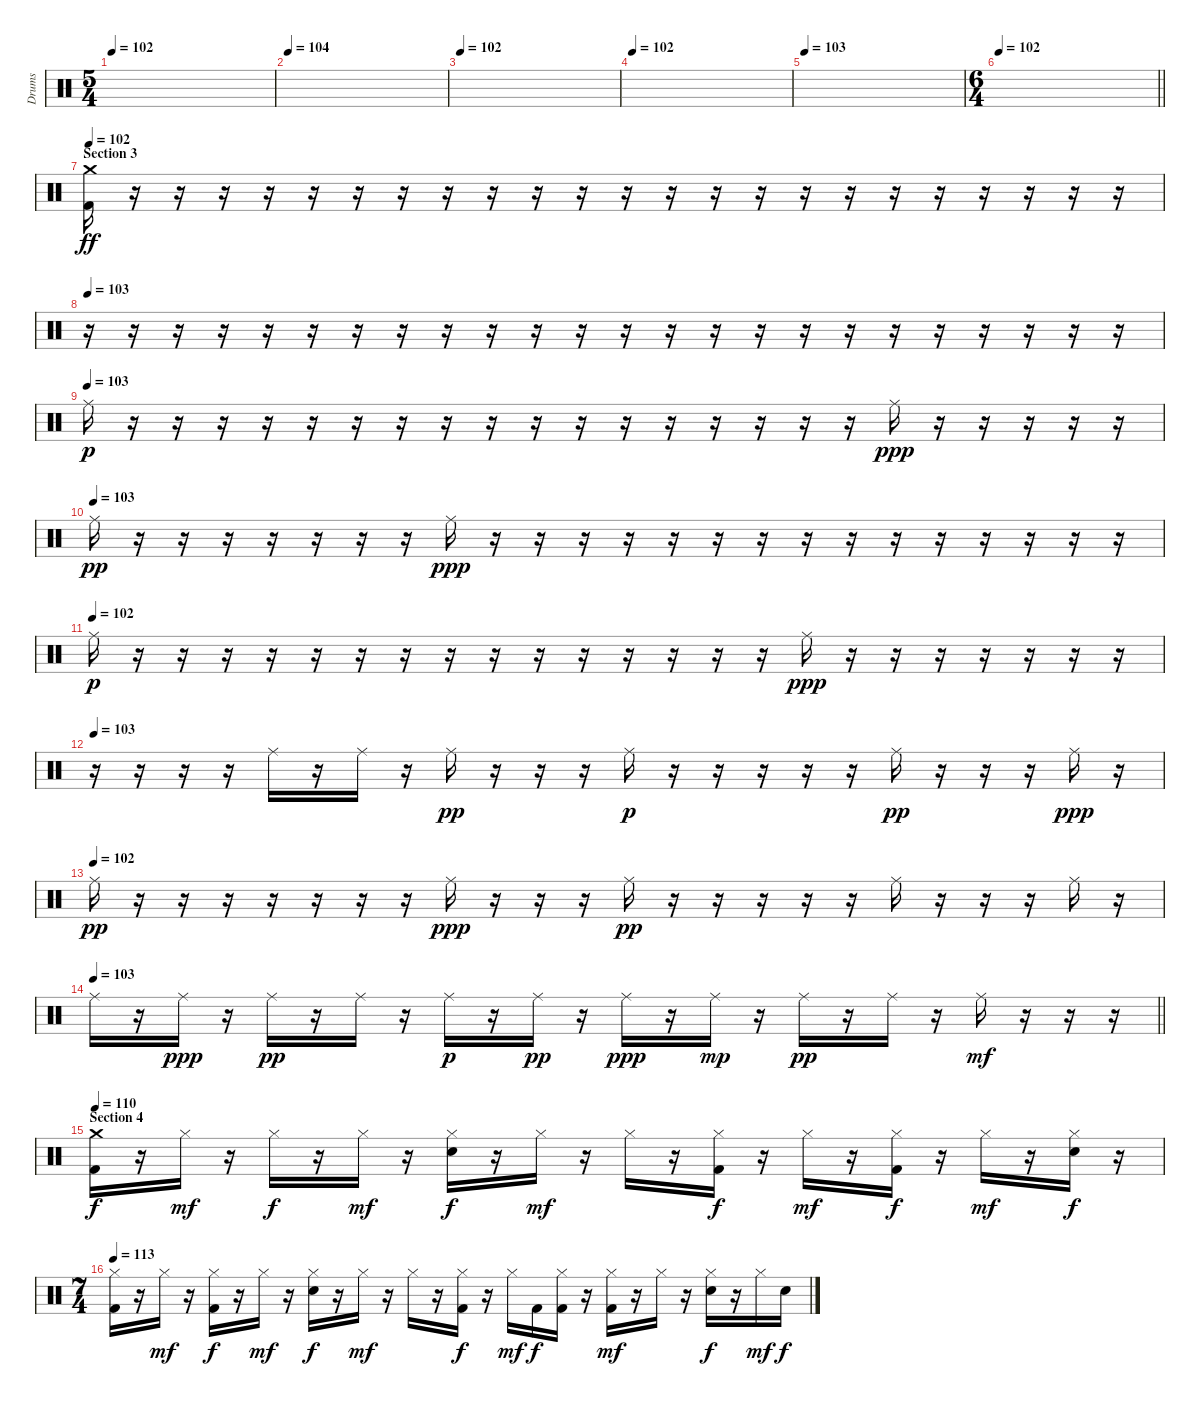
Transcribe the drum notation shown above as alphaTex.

\track ("Drums" "Drums") {instrument percussion}
\staff {score}
\articulation defaults
\ts (5 4)
\tempo 102
\clef neutral
\ks c
|
\tempo 104
|
\tempo 102
|
\tempo 102
|
\tempo 103
|
\ts (6 4)
\tempo 102
\barLineRight lightlight
|
\section ("" "Section 3")
\tempo 102
("Crash medium (hit)" "Kick (hit) 2").16{dy ff} r.16 r.16 r.16 r.16 r.16 r.16 r.16 r.16 r.16 r.16 r.16 r.16 r.16 r.16 r.16 r.16 r.16 r.16 r.16 r.16 r.16 r.16 r.16 |
\tempo 103
r.16 r.16 r.16 r.16 r.16 r.16 r.16 r.16 r.16 r.16 r.16 r.16 r.16 r.16 r.16 r.16 r.16 r.16 r.16 r.16 r.16 r.16 r.16 r.16 |
\tempo (103)
"Ride (middle)".16{dy p} r.16 r.16 r.16 r.16 r.16 r.16 r.16 r.16 r.16 r.16 r.16 r.16 r.16 r.16 r.16 r.16 r.16 "Ride (middle)".16{dy ppp} r.16 r.16 r.16 r.16 r.16 |
\tempo (103)
"Ride (middle)".16{dy pp} r.16 r.16 r.16 r.16 r.16 r.16 r.16 "Ride (middle)".16{dy ppp} r.16 r.16 r.16 r.16 r.16 r.16 r.16 r.16 r.16 r.16 r.16 r.16 r.16 r.16 r.16 |
\tempo (102)
"Ride (middle)".16{dy p} r.16 r.16 r.16 r.16 r.16 r.16 r.16 r.16 r.16 r.16 r.16 r.16 r.16 r.16 r.16 "Ride (middle)".16{dy ppp} r.16 r.16 r.16 r.16 r.16 r.16 r.16 |
\tempo 103
r.16 r.16 r.16 r.16 "Ride (middle)".16 r.16 "Ride (middle)".16 r.16 "Ride (middle)".16{dy pp} r.16 r.16 r.16 "Ride (middle)".16{dy p} r.16 r.16 r.16 r.16 r.16 "Ride (middle)".16{dy pp} r.16 r.16 r.16 "Ride (middle)".16{dy ppp} r.16 |
\tempo (102)
"Ride (middle)".16{dy pp} r.16 r.16 r.16 r.16 r.16 r.16 r.16 "Ride (middle)".16{dy ppp} r.16 r.16 r.16 "Ride (middle)".16{dy pp} r.16 r.16 r.16 r.16 r.16 "Ride (middle)".16 r.16 r.16 r.16 "Ride (middle)".16 r.16 |
\tempo 103
\barLineRight lightlight "Ride (middle)".16
r.16 "Ride (middle)".16{dy ppp} r.16 "Ride (middle)".16{dy pp} r.16 "Ride (middle)".16 r.16 "Ride (middle)".16{dy p} r.16 "Ride (middle)".16{dy pp} r.16 "Ride (middle)".16{dy ppp} r.16 "Ride (middle)".16{dy mp} r.16 "Ride (middle)".16{dy pp} r.16 "Ride (middle)".16 r.16 "Ride (middle)".16{dy mf} r.16 r.16 r.16 |
\section ("" "Section 4")
\tempo 110
("Crash medium (hit)" "Kick (hit) 2").16{dy f} r.16 "Hi-Hat (closed)".16{dy mf} r.16 "Hi-Hat (closed)".16{dy f} r.16 "Hi-Hat (closed)".16{dy mf} r.16 ("Hi-Hat (closed)" "Electric Snare (hit)").16{dy f} r.16 "Hi-Hat (closed)".16{dy mf} r.16 "Hi-Hat (closed)".16 r.16 ("Hi-Hat (closed)" "Kick (hit) 2").16{dy f} r.16 "Hi-Hat (closed)".16{dy mf} r.16 ("Hi-Hat (closed)" "Kick (hit) 2").16{dy f} r.16 "Hi-Hat (closed)".16{dy mf} r.16 ("Hi-Hat (closed)" "Electric Snare (hit)").16{dy f} r.16 |
\ts (7 4)
\tempo 113
("Hi-Hat (closed)" "Kick (hit) 2").16 r.16 "Hi-Hat (closed)".16{dy mf} r.16 ("Hi-Hat (closed)" "Kick (hit) 2").16{dy f} r.16 "Hi-Hat (closed)".16{dy mf} r.16 ("Hi-Hat (closed)" "Electric Snare (hit)").16{dy f} r.16 "Hi-Hat (closed)".16{dy mf} r.16 "Hi-Hat (closed)".16 r.16 ("Hi-Hat (closed)" "Kick (hit) 2").16{dy f} r.16 "Hi-Hat (closed)".16{dy mf} "Kick (hit) 2".16{dy f} ("Hi-Hat (closed)" "Kick (hit) 2").16 r.16 ("Hi-Hat (closed)" "Kick (hit) 2").16{dy mf} r.16 "Hi-Hat (closed)".16 r.16 ("Hi-Hat (closed)" "Electric Snare (hit)").16{dy f} r.16 "Hi-Hat (closed)".16{dy mf} "Electric Snare (hit)".16{dy f}
